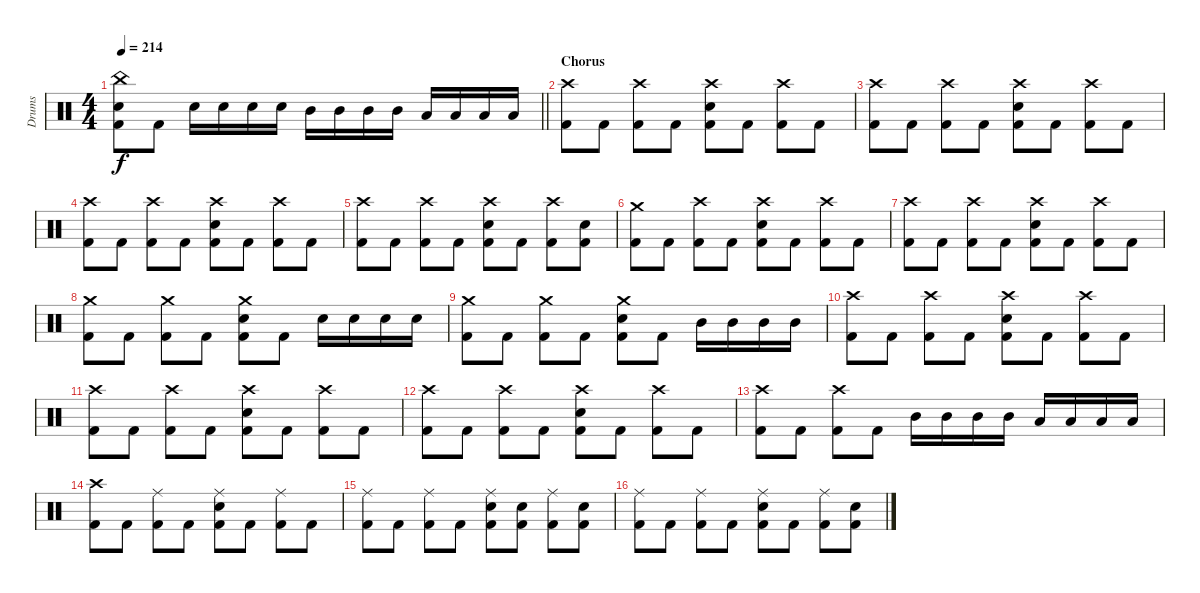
\track ("Drums" "Drums") {instrument percussion}
\staff {score}
\articulation defaults
\ts (4 4)
\tempo 214
\clef neutral
\barLineRight lightlight
\ks c
("China (hit)" "Snare (hit) 2" "Kick (hit) 2").8{dy f} "Kick (hit) 2".8 "Snare (hit) 2".16 "Snare (hit) 2".16 "Snare (hit) 2".16 "Snare (hit) 2".16 "Mid Tom (hit)".16 "Mid Tom (hit)".16 "Mid Tom (hit)".16 "Mid Tom (hit)".16 "Low Tom (hit)".16 "Low Tom (hit)".16 "Low Tom (hit)".16 "Low Tom (hit)".16 |
\section ("" "Chorus")
("Crash high (hit)" "Kick (hit) 2").8 "Kick (hit) 2".8 ("Crash high (hit)" "Kick (hit) 2").8 "Kick (hit) 2".8 ("Crash high (hit)" "Snare (hit) 2" "Kick (hit) 2").8 "Kick (hit) 2".8 ("Crash high (hit)" "Kick (hit) 2").8 "Kick (hit) 2".8 |
("Crash high (hit)" "Kick (hit) 2").8 "Kick (hit) 2".8 ("Crash high (hit)" "Kick (hit) 2").8 "Kick (hit) 2".8 ("Crash high (hit)" "Snare (hit) 2" "Kick (hit) 2").8 "Kick (hit) 2".8 ("Crash high (hit)" "Kick (hit) 2").8 "Kick (hit) 2".8 |
("Crash high (hit)" "Kick (hit) 2").8 "Kick (hit) 2".8 ("Crash high (hit)" "Kick (hit) 2").8 "Kick (hit) 2".8 ("Crash high (hit)" "Snare (hit) 2" "Kick (hit) 2").8 "Kick (hit) 2".8 ("Crash high (hit)" "Kick (hit) 2").8 "Kick (hit) 2".8 |
("Crash high (hit)" "Kick (hit) 2").8 "Kick (hit) 2".8 ("Crash high (hit)" "Kick (hit) 2").8 "Kick (hit) 2".8 ("Crash high (hit)" "Snare (hit) 2" "Kick (hit) 2").8 "Kick (hit) 2".8 ("Crash high (hit)" "Kick (hit) 2").8 ("Snare (hit) 2" "Kick (hit) 2").8 |
("Crash medium (hit)" "Kick (hit) 2").8 "Kick (hit) 2".8 ("Crash high (hit)" "Kick (hit) 2").8 "Kick (hit) 2".8 ("Crash high (hit)" "Snare (hit) 2" "Kick (hit) 2").8 "Kick (hit) 2".8 ("Crash high (hit)" "Kick (hit) 2").8 "Kick (hit) 2".8 |
("Crash high (hit)" "Kick (hit) 2").8 "Kick (hit) 2".8 ("Crash high (hit)" "Kick (hit) 2").8 "Kick (hit) 2".8 ("Crash high (hit)" "Snare (hit) 2" "Kick (hit) 2").8 "Kick (hit) 2".8 ("Crash high (hit)" "Kick (hit) 2").8 "Kick (hit) 2".8 |
("Crash medium (hit)" "Kick (hit) 2").8 "Kick (hit) 2".8 ("Crash medium (hit)" "Kick (hit) 2").8 "Kick (hit) 2".8 ("Crash medium (hit)" "Snare (hit) 2" "Kick (hit) 2").8 "Kick (hit) 2".8 "Snare (hit) 2".16 "Snare (hit) 2".16 "Snare (hit) 2".16 "Snare (hit) 2".16 |
("Crash medium (hit)" "Kick (hit) 2").8 "Kick (hit) 2".8 ("Crash medium (hit)" "Kick (hit) 2").8 "Kick (hit) 2".8 ("Crash medium (hit)" "Snare (hit) 2" "Kick (hit) 2").8 "Kick (hit) 2".8 "Mid Tom (hit)".16 "Mid Tom (hit)".16 "Mid Tom (hit)".16 "Mid Tom (hit)".16 |
("Crash high (hit)" "Kick (hit) 2").8 "Kick (hit) 2".8 ("Crash high (hit)" "Kick (hit) 2").8 "Kick (hit) 2".8 ("Crash high (hit)" "Snare (hit) 2" "Kick (hit) 2").8 "Kick (hit) 2".8 ("Crash high (hit)" "Kick (hit) 2").8 "Kick (hit) 2".8 |
("Crash high (hit)" "Kick (hit) 2").8 "Kick (hit) 2".8 ("Crash high (hit)" "Kick (hit) 2").8 "Kick (hit) 2".8 ("Crash high (hit)" "Snare (hit) 2" "Kick (hit) 2").8 "Kick (hit) 2".8 ("Crash high (hit)" "Kick (hit) 2").8 "Kick (hit) 2".8 |
("Crash high (hit)" "Kick (hit) 2").8 "Kick (hit) 2".8 ("Crash high (hit)" "Kick (hit) 2").8 "Kick (hit) 2".8 ("Crash high (hit)" "Snare (hit) 2" "Kick (hit) 2").8 "Kick (hit) 2".8 ("Crash high (hit)" "Kick (hit) 2").8 "Kick (hit) 2".8 |
("Crash high (hit)" "Kick (hit) 2").8 "Kick (hit) 2".8 ("Crash high (hit)" "Kick (hit) 2").8 "Kick (hit) 2".8 "Mid Tom (hit)".16 "Mid Tom (hit)".16 "Mid Tom (hit)".16 "Mid Tom (hit)".16 "Low Tom (hit)".16 "Low Tom (hit)".16 "Low Tom (hit)".16 "Low Tom (hit)".16 |
("Crash high (hit)" "Kick (hit) 2").8 "Kick (hit) 2".8 ("Ride (middle)" "Kick (hit) 2").8 "Kick (hit) 2".8 ("Ride (middle)" "Snare (hit) 2" "Kick (hit) 2").8 "Kick (hit) 2".8 ("Ride (middle)" "Kick (hit) 2").8 "Kick (hit) 2".8 |
("Ride (middle)" "Kick (hit) 2").8 "Kick (hit) 2".8 ("Ride (middle)" "Kick (hit) 2").8 "Kick (hit) 2".8 ("Ride (middle)" "Snare (hit) 2" "Kick (hit) 2").8 ("Snare (hit) 2" "Kick (hit) 2").8 ("Ride (middle)" "Kick (hit) 2").8 ("Snare (hit) 2" "Kick (hit) 2").8 |
("Ride (middle)" "Kick (hit) 2").8 "Kick (hit) 2".8 ("Ride (middle)" "Kick (hit) 2").8 "Kick (hit) 2".8 ("Ride (middle)" "Snare (hit) 2" "Kick (hit) 2").8 "Kick (hit) 2".8 ("Ride (middle)" "Kick (hit) 2").8 ("Snare (hit) 2" "Kick (hit) 2").8
